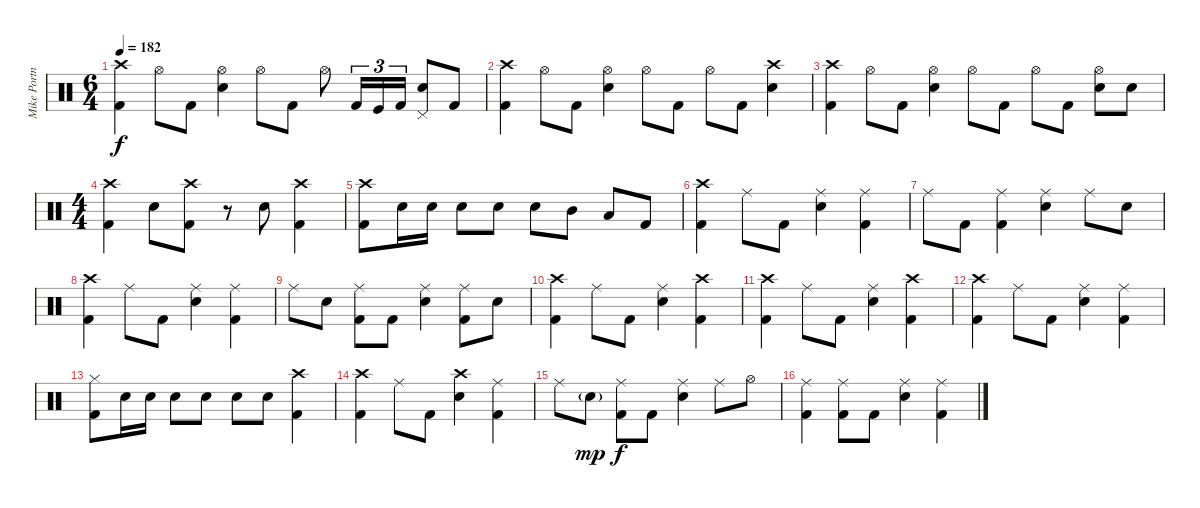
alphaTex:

\track ("Mike Portnoy" "Mike Portn") {instrument percussion}
\staff {score}
\articulation defaults
\ts (6 4)
\tempo 182
\clef neutral
\ks c
("Crash high (hit)" "Kick (hit) 2").4{dy f} "Hi-Hat (open)".8 "Kick (hit) 2".8 ("Hi-Hat (open)" "Electric Snare (hit)").4 "Hi-Hat (open)".8 "Kick (hit) 2".8 "Hi-Hat (open)".8 "Kick (hit) 2".16{tu (3 2)} "Kick (hit)".16{tu (3 2)} "Kick (hit) 2".16{tu (3 2)} ("Pedal Hi-Hat (hit)" "Electric Snare (hit)").8 "Kick (hit) 2".8 |
("Crash high (hit)" "Kick (hit) 2").4 "Hi-Hat (open)".8 "Kick (hit) 2".8 ("Hi-Hat (open)" "Electric Snare (hit)").4 "Hi-Hat (open)".8 "Kick (hit) 2".8 "Hi-Hat (open)".8 "Kick (hit) 2".8 ("Crash high (hit)" "Electric Snare (hit)").4 |
("Crash high (hit)" "Kick (hit) 2").4 "Hi-Hat (open)".8 "Kick (hit) 2".8 ("Hi-Hat (open)" "Electric Snare (hit)").4 "Hi-Hat (open)".8 "Kick (hit) 2".8 "Hi-Hat (open)".8 "Kick (hit) 2".8 ("Hi-Hat (open)" "Electric Snare (hit)").8 "Electric Snare (hit)".8 |
\ts (4 4)
("Crash high (hit)" "Kick (hit) 2").4 "Electric Snare (hit)".8 ("Crash high (hit)" "Kick (hit) 2").8 r.8 "Electric Snare (hit)".8 ("Crash high (hit)" "Kick (hit) 2").4 |
("Crash high (hit)" "Kick (hit) 2").8 "Electric Snare (hit)".16 "Electric Snare (hit)".16 "Electric Snare (hit)".8 "Electric Snare (hit)".8 "Electric Snare (hit)".8 "Mid Tom (hit)".8 "Low Floor Tom (hit)".8 "Kick (hit) 2".8 |
("Crash high (hit)" "Kick (hit) 2").4 "Ride (middle)".8 "Kick (hit) 2".8 ("Ride (middle)" "Electric Snare (hit)").4 ("Ride (middle)" "Kick (hit) 2").4 |
"Ride (middle)".8 "Kick (hit) 2".8 ("Ride (middle)" "Kick (hit) 2").4 ("Ride (middle)" "Electric Snare (hit)").4 "Ride (middle)".8 "Electric Snare (hit)".8 |
("Crash high (hit)" "Kick (hit) 2").4 "Ride (middle)".8 "Kick (hit) 2".8 ("Ride (middle)" "Electric Snare (hit)").4 ("Ride (middle)" "Kick (hit) 2").4 |
"Ride (middle)".8 "Electric Snare (hit)".8 ("Ride (middle)" "Kick (hit) 2").8 "Kick (hit) 2".8 ("Ride (middle)" "Electric Snare (hit)").4 ("Ride (middle)" "Kick (hit) 2").8 "Electric Snare (hit)".8 |
("Crash high (hit)" "Kick (hit) 2").4 "Ride (middle)".8 "Kick (hit) 2".8 ("Ride (middle)" "Electric Snare (hit)").4 ("Crash high (hit)" "Kick (hit) 2").4 |
("Crash high (hit)" "Kick (hit) 2").4 "Ride (middle)".8 "Kick (hit) 2".8 ("Ride (middle)" "Electric Snare (hit)").4 ("Crash high (hit)" "Kick (hit) 2").4 |
("Crash high (hit)" "Kick (hit) 2").4 "Ride (middle)".8 "Kick (hit) 2".8 ("Ride (middle)" "Electric Snare (hit)").4 ("Ride (middle)" "Kick (hit) 2").4 |
("Hi-Hat (closed)" "Kick (hit) 2").8 "Electric Snare (hit)".16 "Electric Snare (hit)".16 "Electric Snare (hit)".8 "Electric Snare (hit)".8 "Electric Snare (hit)".8 "Electric Snare (hit)".8 ("Crash high (hit)" "Kick (hit) 2").4 |
("Crash high (hit)" "Kick (hit) 2").4 "Ride (middle)".8 "Kick (hit) 2".8 ("Crash high (hit)" "Electric Snare (hit)").4 ("Ride (middle)" "Kick (hit) 2").4 |
"Ride (middle)".8 "Electric Snare (hit)"{g}.8{dy mp} ("Ride (middle)" "Kick (hit) 2").8{dy f} "Kick (hit) 2".8 ("Ride (middle)" "Electric Snare (hit)").4 "Ride (middle)".8 "Hi-Hat (open)".8 |
("Ride (middle)" "Kick (hit) 2").4 ("Ride (middle)" "Kick (hit) 2").8 "Kick (hit) 2".8 ("Ride (middle)" "Electric Snare (hit)").4 ("Ride (middle)" "Kick (hit) 2").4
